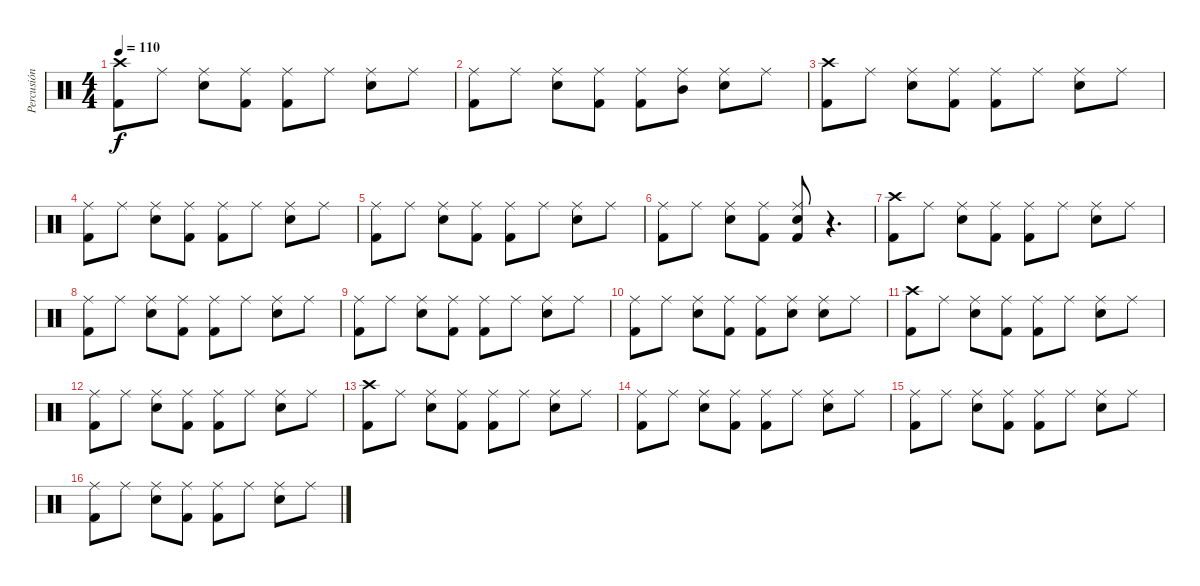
\track ("Percusión" "Percusión") {instrument percussion}
\staff {score}
\articulation defaults
\ts (4 4)
\tempo 110
\clef neutral
\ks c
("Crash high (hit)" "Kick (hit) 2").8{dy f} "Ride (middle)".8 ("Ride (middle)" "Snare (hit) 2").8 ("Ride (middle)" "Kick (hit) 2").8 ("Ride (middle)" "Kick (hit) 2").8 "Ride (middle)".8 ("Ride (middle)" "Snare (hit) 2").8 "Ride (middle)".8 |
("Ride (middle)" "Kick (hit) 2").8 "Ride (middle)".8 ("Ride (middle)" "Snare (hit) 2").8 ("Ride (middle)" "Kick (hit) 2").8 ("Ride (middle)" "Kick (hit) 2").8 ("Ride (middle)" "Mid Tom (hit)").8 ("Ride (middle)" "Snare (hit) 2").8 "Ride (middle)".8 |
("Crash high (hit)" "Kick (hit) 2").8 "Ride (middle)".8 ("Ride (middle)" "Snare (hit) 2").8 ("Ride (middle)" "Kick (hit) 2").8 ("Ride (middle)" "Kick (hit) 2").8 "Ride (middle)".8 ("Ride (middle)" "Snare (hit) 2").8 "Ride (middle)".8 |
("Ride (middle)" "Kick (hit) 2").8 "Ride (middle)".8 ("Ride (middle)" "Snare (hit) 2").8 ("Ride (middle)" "Kick (hit) 2").8 ("Ride (middle)" "Kick (hit) 2").8 "Ride (middle)".8 ("Ride (middle)" "Snare (hit) 2").8 "Ride (middle)".8 |
("Ride (middle)" "Kick (hit) 2").8 "Ride (middle)".8 ("Ride (middle)" "Snare (hit) 2").8 ("Ride (middle)" "Kick (hit) 2").8 ("Ride (middle)" "Kick (hit) 2").8 "Ride (middle)".8 ("Ride (middle)" "Snare (hit) 2").8 "Ride (middle)".8 |
("Ride (middle)" "Kick (hit) 2").8 "Ride (middle)".8 ("Ride (middle)" "Snare (hit) 2").8 ("Ride (middle)" "Kick (hit) 2").8 ("Ride (middle)" "Kick (hit) 2" "Snare (hit) 2").8 r.4{d} |
("Crash high (hit)" "Kick (hit) 2").8 "Ride (middle)".8 ("Ride (middle)" "Snare (hit) 2").8 ("Ride (middle)" "Kick (hit) 2").8 ("Ride (middle)" "Kick (hit) 2").8 "Ride (middle)".8 ("Ride (middle)" "Snare (hit) 2").8 "Ride (middle)".8 |
("Ride (middle)" "Kick (hit) 2").8 "Ride (middle)".8 ("Ride (middle)" "Snare (hit) 2").8 ("Ride (middle)" "Kick (hit) 2").8 ("Ride (middle)" "Kick (hit) 2").8 "Ride (middle)".8 ("Ride (middle)" "Snare (hit) 2").8 "Ride (middle)".8 |
("Ride (middle)" "Kick (hit) 2").8 "Ride (middle)".8 ("Ride (middle)" "Snare (hit) 2").8 ("Ride (middle)" "Kick (hit) 2").8 ("Ride (middle)" "Kick (hit) 2").8 "Ride (middle)".8 ("Ride (middle)" "Snare (hit) 2").8 "Ride (middle)".8 |
("Ride (middle)" "Kick (hit) 2").8 "Ride (middle)".8 ("Ride (middle)" "Snare (hit) 2").8 ("Ride (middle)" "Kick (hit) 2").8 ("Ride (middle)" "Kick (hit) 2").8 ("Ride (middle)" "Snare (hit) 2").8 ("Ride (middle)" "Snare (hit) 2").8 "Ride (middle)".8 |
("Crash high (hit)" "Kick (hit) 2").8 "Ride (middle)".8 ("Ride (middle)" "Snare (hit) 2").8 ("Ride (middle)" "Kick (hit) 2").8 ("Ride (middle)" "Kick (hit) 2").8 "Ride (middle)".8 ("Ride (middle)" "Snare (hit) 2").8 "Ride (middle)".8 |
("Ride (middle)" "Kick (hit) 2").8 "Ride (middle)".8 ("Ride (middle)" "Snare (hit) 2").8 ("Ride (middle)" "Kick (hit) 2").8 ("Ride (middle)" "Kick (hit) 2").8 "Ride (middle)".8 ("Ride (middle)" "Snare (hit) 2").8 "Ride (middle)".8 |
("Crash high (hit)" "Kick (hit) 2").8 "Ride (middle)".8 ("Ride (middle)" "Snare (hit) 2").8 ("Ride (middle)" "Kick (hit) 2").8 ("Ride (middle)" "Kick (hit) 2").8 "Ride (middle)".8 ("Ride (middle)" "Snare (hit) 2").8 "Ride (middle)".8 |
("Ride (middle)" "Kick (hit) 2").8 "Ride (middle)".8 ("Ride (middle)" "Snare (hit) 2").8 ("Ride (middle)" "Kick (hit) 2").8 ("Ride (middle)" "Kick (hit) 2").8 "Ride (middle)".8 ("Ride (middle)" "Snare (hit) 2").8 "Ride (middle)".8 |
("Ride (middle)" "Kick (hit) 2").8 "Ride (middle)".8 ("Ride (middle)" "Snare (hit) 2").8 ("Ride (middle)" "Kick (hit) 2").8 ("Ride (middle)" "Kick (hit) 2").8 "Ride (middle)".8 ("Ride (middle)" "Snare (hit) 2").8 "Ride (middle)".8 |
("Ride (middle)" "Kick (hit) 2").8 "Ride (middle)".8 ("Ride (middle)" "Snare (hit) 2").8 ("Ride (middle)" "Kick (hit) 2").8 ("Ride (middle)" "Kick (hit) 2").8 "Ride (middle)".8 ("Ride (middle)" "Snare (hit) 2").8 "Ride (middle)".8
